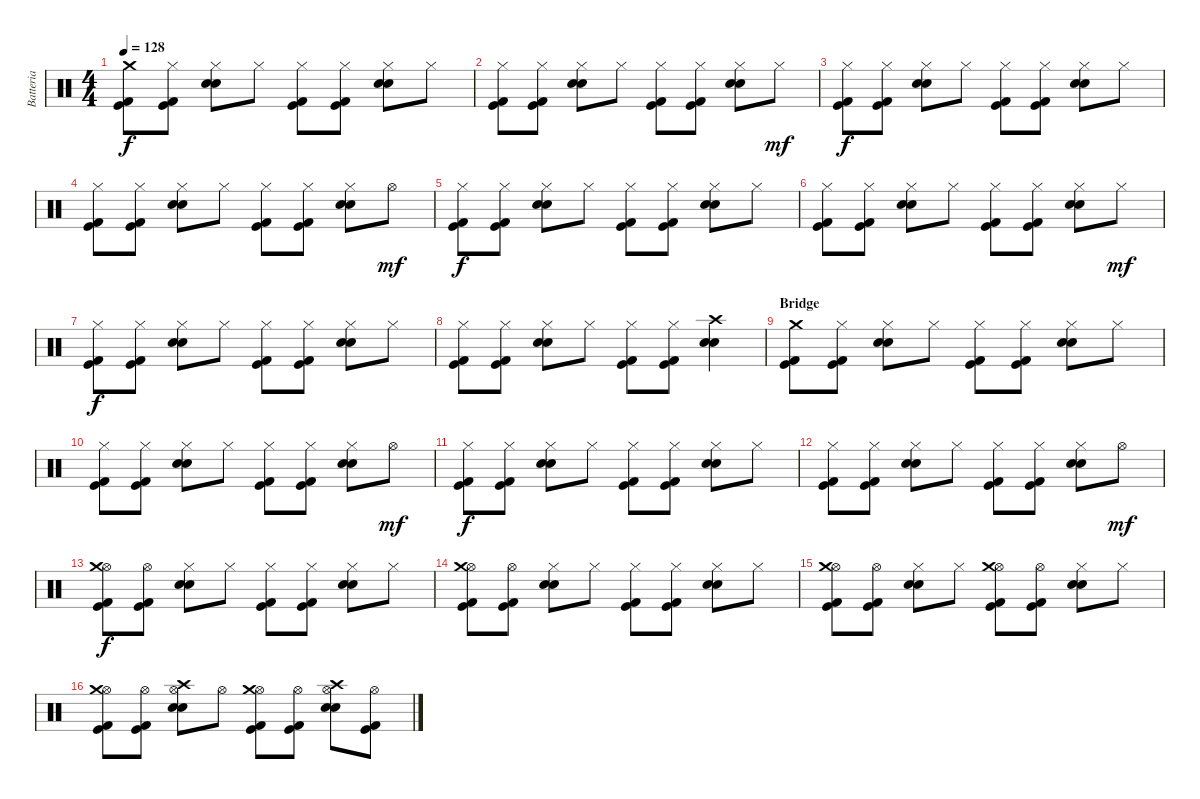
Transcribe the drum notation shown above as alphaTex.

\track ("Batteria" "Batteria") {instrument percussion}
\staff {score}
\articulation defaults
\ts (4 4)
\tempo 128
\clef neutral
\ks c
("Crash medium (hit)" "Kick (hit) 2" "Kick (hit)").8{dy f} ("Hi-Hat (closed)" "Kick (hit) 2" "Kick (hit)").8 ("Hi-Hat (closed)" "Electric Snare (hit)" "Electric Snare (hit)").8 "Hi-Hat (closed)".8 ("Hi-Hat (closed)" "Kick (hit) 2" "Kick (hit)").8 ("Hi-Hat (closed)" "Kick (hit) 2" "Kick (hit)").8 ("Hi-Hat (closed)" "Electric Snare (hit)" "Electric Snare (hit)").8 "Hi-Hat (closed)".8 |
("Hi-Hat (closed)" "Kick (hit) 2" "Kick (hit)").8 ("Hi-Hat (closed)" "Kick (hit) 2" "Kick (hit)").8 ("Hi-Hat (closed)" "Electric Snare (hit)" "Electric Snare (hit)").8 "Hi-Hat (closed)".8 ("Hi-Hat (closed)" "Kick (hit) 2" "Kick (hit)").8 ("Hi-Hat (closed)" "Kick (hit) 2" "Kick (hit)").8 ("Hi-Hat (closed)" "Electric Snare (hit)" "Electric Snare (hit)").8 "Hi-Hat (closed)".8{dy mf} |
("Hi-Hat (closed)" "Kick (hit) 2" "Kick (hit)").8{dy f} ("Hi-Hat (closed)" "Kick (hit) 2" "Kick (hit)").8 ("Hi-Hat (closed)" "Electric Snare (hit)" "Electric Snare (hit)").8 "Hi-Hat (closed)".8 ("Hi-Hat (closed)" "Kick (hit) 2" "Kick (hit)").8 ("Hi-Hat (closed)" "Kick (hit) 2" "Kick (hit)").8 ("Hi-Hat (closed)" "Electric Snare (hit)" "Electric Snare (hit)").8 "Hi-Hat (closed)".8 |
("Hi-Hat (closed)" "Kick (hit) 2" "Kick (hit)").8 ("Hi-Hat (closed)" "Kick (hit) 2" "Kick (hit)").8 ("Hi-Hat (closed)" "Electric Snare (hit)" "Electric Snare (hit)").8 "Hi-Hat (closed)".8 ("Hi-Hat (closed)" "Kick (hit) 2" "Kick (hit)").8 ("Hi-Hat (closed)" "Kick (hit) 2" "Kick (hit)").8 ("Hi-Hat (closed)" "Electric Snare (hit)" "Electric Snare (hit)").8 "Hi-Hat (open)".8{dy mf} |
("Hi-Hat (closed)" "Kick (hit) 2" "Kick (hit)").8{dy f} ("Hi-Hat (closed)" "Kick (hit) 2" "Kick (hit)").8 ("Hi-Hat (closed)" "Electric Snare (hit)" "Electric Snare (hit)").8 "Hi-Hat (closed)".8 ("Hi-Hat (closed)" "Kick (hit) 2" "Kick (hit)").8 ("Hi-Hat (closed)" "Kick (hit) 2" "Kick (hit)").8 ("Hi-Hat (closed)" "Electric Snare (hit)" "Electric Snare (hit)").8 "Hi-Hat (closed)".8 |
("Hi-Hat (closed)" "Kick (hit) 2" "Kick (hit)").8 ("Hi-Hat (closed)" "Kick (hit) 2" "Kick (hit)").8 ("Hi-Hat (closed)" "Electric Snare (hit)" "Electric Snare (hit)").8 "Hi-Hat (closed)".8 ("Hi-Hat (closed)" "Kick (hit) 2" "Kick (hit)").8 ("Hi-Hat (closed)" "Kick (hit) 2" "Kick (hit)").8 ("Hi-Hat (closed)" "Electric Snare (hit)" "Electric Snare (hit)").8 "Hi-Hat (closed)".8{dy mf} |
("Hi-Hat (closed)" "Kick (hit) 2" "Kick (hit)").8{dy f} ("Hi-Hat (closed)" "Kick (hit) 2" "Kick (hit)").8 ("Hi-Hat (closed)" "Electric Snare (hit)" "Electric Snare (hit)").8 "Hi-Hat (closed)".8 ("Hi-Hat (closed)" "Kick (hit) 2" "Kick (hit)").8 ("Hi-Hat (closed)" "Kick (hit) 2" "Kick (hit)").8 ("Hi-Hat (closed)" "Electric Snare (hit)" "Electric Snare (hit)").8 "Hi-Hat (closed)".8 |
("Hi-Hat (closed)" "Kick (hit) 2" "Kick (hit)").8 ("Hi-Hat (closed)" "Kick (hit) 2" "Kick (hit)").8 ("Hi-Hat (closed)" "Electric Snare (hit)" "Electric Snare (hit)").8 "Hi-Hat (closed)".8 ("Hi-Hat (closed)" "Kick (hit) 2" "Kick (hit)").8 ("Hi-Hat (closed)" "Kick (hit) 2" "Kick (hit)").8 ("Crash high (hit)" "Electric Snare (hit)" "Electric Snare (hit)").4 |
\section ("" "Bridge")
("Crash medium (hit)" "Kick (hit) 2" "Kick (hit)").8 ("Hi-Hat (closed)" "Kick (hit) 2" "Kick (hit)").8 ("Hi-Hat (closed)" "Electric Snare (hit)" "Electric Snare (hit)").8 "Hi-Hat (closed)".8 ("Hi-Hat (closed)" "Kick (hit) 2" "Kick (hit)").8 ("Hi-Hat (closed)" "Kick (hit) 2" "Kick (hit)").8 ("Hi-Hat (closed)" "Electric Snare (hit)" "Electric Snare (hit)").8 "Hi-Hat (closed)".8 |
("Hi-Hat (closed)" "Kick (hit) 2" "Kick (hit)").8 ("Hi-Hat (closed)" "Kick (hit) 2" "Kick (hit)").8 ("Hi-Hat (closed)" "Electric Snare (hit)" "Electric Snare (hit)").8 "Hi-Hat (closed)".8 ("Hi-Hat (closed)" "Kick (hit) 2" "Kick (hit)").8 ("Hi-Hat (closed)" "Kick (hit) 2" "Kick (hit)").8 ("Hi-Hat (closed)" "Electric Snare (hit)" "Electric Snare (hit)").8 "Hi-Hat (open)".8{dy mf} |
("Hi-Hat (closed)" "Kick (hit) 2" "Kick (hit)").8{dy f} ("Hi-Hat (closed)" "Kick (hit) 2" "Kick (hit)").8 ("Hi-Hat (closed)" "Electric Snare (hit)" "Electric Snare (hit)").8 "Hi-Hat (closed)".8 ("Hi-Hat (closed)" "Kick (hit) 2" "Kick (hit)").8 ("Hi-Hat (closed)" "Kick (hit) 2" "Kick (hit)").8 ("Hi-Hat (closed)" "Electric Snare (hit)" "Electric Snare (hit)").8 "Hi-Hat (closed)".8 |
("Hi-Hat (closed)" "Kick (hit) 2" "Kick (hit)").8 ("Hi-Hat (closed)" "Kick (hit) 2" "Kick (hit)").8 ("Hi-Hat (closed)" "Electric Snare (hit)" "Electric Snare (hit)").8 "Hi-Hat (closed)".8 ("Hi-Hat (closed)" "Kick (hit) 2" "Kick (hit)").8 ("Hi-Hat (closed)" "Kick (hit) 2" "Kick (hit)").8 ("Hi-Hat (closed)" "Electric Snare (hit)" "Electric Snare (hit)").8 "Hi-Hat (open)".8{dy mf} |
("Hi-Hat (open)" "Crash medium (hit)" "Kick (hit) 2" "Kick (hit)").8{dy f} ("Hi-Hat (open)" "Kick (hit) 2" "Kick (hit)").8 ("Hi-Hat (closed)" "Electric Snare (hit)" "Electric Snare (hit)").8 "Hi-Hat (closed)".8 ("Hi-Hat (closed)" "Kick (hit) 2" "Kick (hit)").8 ("Hi-Hat (closed)" "Kick (hit) 2" "Kick (hit)").8 ("Hi-Hat (closed)" "Electric Snare (hit)" "Electric Snare (hit)").8 "Hi-Hat (closed)".8 |
("Hi-Hat (open)" "Crash medium (hit)" "Kick (hit) 2" "Kick (hit)").8 ("Hi-Hat (open)" "Kick (hit) 2" "Kick (hit)").8 ("Hi-Hat (closed)" "Electric Snare (hit)" "Electric Snare (hit)").8 "Hi-Hat (closed)".8 ("Hi-Hat (closed)" "Kick (hit) 2" "Kick (hit)").8 ("Hi-Hat (closed)" "Kick (hit) 2" "Kick (hit)").8 ("Hi-Hat (closed)" "Electric Snare (hit)" "Electric Snare (hit)").8 "Hi-Hat (closed)".8 |
("Hi-Hat (open)" "Crash medium (hit)" "Kick (hit) 2" "Kick (hit)").8 ("Hi-Hat (open)" "Kick (hit) 2" "Kick (hit)").8 ("Hi-Hat (closed)" "Electric Snare (hit)" "Electric Snare (hit)").8 "Hi-Hat (closed)".8 ("Hi-Hat (open)" "Crash medium (hit)" "Kick (hit) 2" "Kick (hit)").8 ("Hi-Hat (open)" "Kick (hit) 2" "Kick (hit)").8 ("Hi-Hat (closed)" "Electric Snare (hit)" "Electric Snare (hit)").8 "Hi-Hat (closed)".8 |
("Hi-Hat (open)" "Crash medium (hit)" "Kick (hit) 2" "Kick (hit)").8 ("Hi-Hat (open)" "Kick (hit) 2" "Kick (hit)").8 ("Hi-Hat (open)" "Crash high (hit)" "Electric Snare (hit)" "Electric Snare (hit)").8 "Hi-Hat (open)".8 ("Hi-Hat (open)" "Crash medium (hit)" "Kick (hit) 2" "Kick (hit)").8 ("Hi-Hat (open)" "Kick (hit) 2" "Kick (hit)").8 ("Hi-Hat (open)" "Crash high (hit)" "Electric Snare (hit)" "Electric Snare (hit)").8 ("Hi-Hat (open)" "Kick (hit) 2" "Kick (hit)").8
